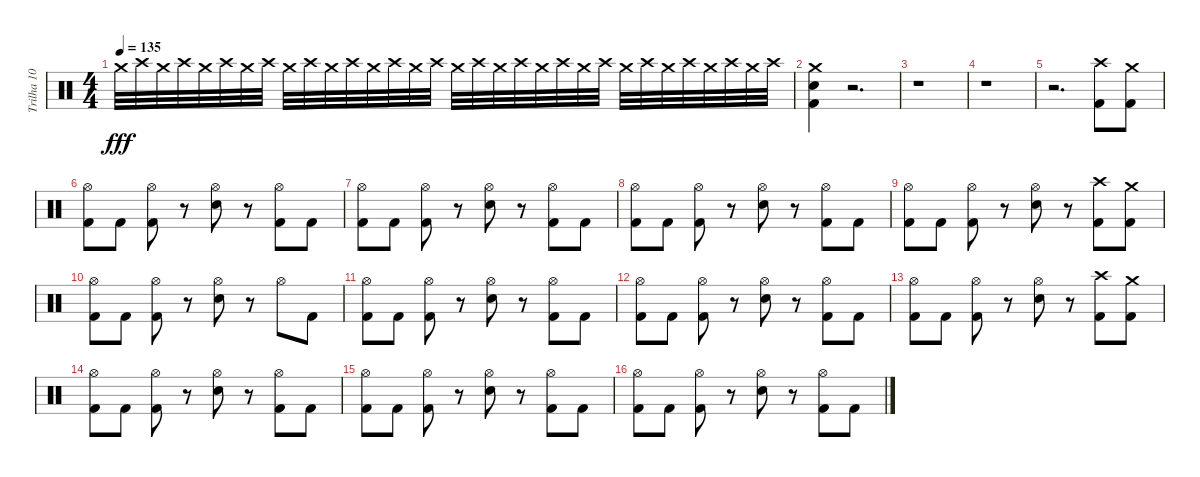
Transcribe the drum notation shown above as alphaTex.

\track ("Trilha 10" "Trilha 10") {instrument percussion}
\staff {score}
\articulation defaults
\ts (4 4)
\tempo 135
\clef neutral
\ks c "Crash medium (hit)".32{dy fff} "Crash high (hit)".32 "Crash medium (hit)".32 "Crash high (hit)".32 "Crash medium (hit)".32 "Crash high (hit)".32 "Crash medium (hit)".32 "Crash high (hit)".32 "Crash medium (hit)".32 "Crash high (hit)".32 "Crash medium (hit)".32 "Crash high (hit)".32 "Crash medium (hit)".32 "Crash high (hit)".32 "Crash medium (hit)".32 "Crash high (hit)".32 "Crash medium (hit)".32 "Crash high (hit)".32 "Crash medium (hit)".32 "Crash high (hit)".32 "Crash medium (hit)".32 "Crash high (hit)".32 "Crash medium (hit)".32 "Crash high (hit)".32 "Crash medium (hit)".32 "Crash high (hit)".32 "Crash medium (hit)".32 "Crash high (hit)".32 "Crash medium (hit)".32 "Crash high (hit)".32 "Crash medium (hit)".32 "Crash high (hit)".32
|
("Electric Snare (hit)" "Crash medium (hit)" "Kick (hit) 2").4 r.2{d} |
r.1 |
r.1 |
r.2{d} ("Kick (hit) 2" "Crash high (hit)").8 ("Kick (hit) 2" "Crash medium (hit)").8 |
("Kick (hit) 2" "Hi-Hat (open)").8 "Kick (hit) 2".8 ("Kick (hit) 2" "Hi-Hat (open)").8 r.8 ("Electric Snare (hit)" "Hi-Hat (open)").8 r.8 ("Kick (hit) 2" "Hi-Hat (open)").8 "Kick (hit) 2".8 |
("Kick (hit) 2" "Hi-Hat (open)").8 "Kick (hit) 2".8 ("Kick (hit) 2" "Hi-Hat (open)").8 r.8 ("Electric Snare (hit)" "Hi-Hat (open)").8 r.8 ("Kick (hit) 2" "Hi-Hat (open)").8 "Kick (hit) 2".8 |
("Kick (hit) 2" "Hi-Hat (open)").8 "Kick (hit) 2".8 ("Kick (hit) 2" "Hi-Hat (open)").8 r.8 ("Electric Snare (hit)" "Hi-Hat (open)").8 r.8 ("Kick (hit) 2" "Hi-Hat (open)").8 "Kick (hit) 2".8 |
("Kick (hit) 2" "Hi-Hat (open)").8 "Kick (hit) 2".8 ("Kick (hit) 2" "Hi-Hat (open)").8 r.8 ("Electric Snare (hit)" "Hi-Hat (open)").8 r.8 ("Kick (hit) 2" "Crash high (hit)").8 ("Kick (hit) 2" "Crash medium (hit)").8 |
("Kick (hit) 2" "Hi-Hat (open)").8 "Kick (hit) 2".8 ("Kick (hit) 2" "Hi-Hat (open)").8 r.8 ("Electric Snare (hit)" "Hi-Hat (open)").8 r.8 "Hi-Hat (open)".8 "Kick (hit) 2".8 |
("Kick (hit) 2" "Hi-Hat (open)").8 "Kick (hit) 2".8 ("Kick (hit) 2" "Hi-Hat (open)").8 r.8 ("Electric Snare (hit)" "Hi-Hat (open)").8 r.8 ("Kick (hit) 2" "Hi-Hat (open)").8 "Kick (hit) 2".8 |
("Kick (hit) 2" "Hi-Hat (open)").8 "Kick (hit) 2".8 ("Kick (hit) 2" "Hi-Hat (open)").8 r.8 ("Electric Snare (hit)" "Hi-Hat (open)").8 r.8 ("Kick (hit) 2" "Hi-Hat (open)").8 "Kick (hit) 2".8 |
("Hi-Hat (open)" "Kick (hit) 2").8 "Kick (hit) 2".8 ("Kick (hit) 2" "Hi-Hat (open)").8 r.8 ("Electric Snare (hit)" "Hi-Hat (open)").8 r.8 ("Kick (hit) 2" "Crash high (hit)").8 ("Kick (hit) 2" "Crash medium (hit)").8 |
("Kick (hit) 2" "Hi-Hat (open)").8 "Kick (hit) 2".8 ("Kick (hit) 2" "Hi-Hat (open)").8 r.8 ("Electric Snare (hit)" "Hi-Hat (open)").8 r.8 ("Kick (hit) 2" "Hi-Hat (open)").8 "Kick (hit) 2".8 |
("Kick (hit) 2" "Hi-Hat (open)").8 "Kick (hit) 2".8 ("Kick (hit) 2" "Hi-Hat (open)").8 r.8 ("Electric Snare (hit)" "Hi-Hat (open)").8 r.8 ("Kick (hit) 2" "Hi-Hat (open)").8 "Kick (hit) 2".8 |
("Kick (hit) 2" "Hi-Hat (open)").8 "Kick (hit) 2".8 ("Kick (hit) 2" "Hi-Hat (open)").8 r.8 ("Electric Snare (hit)" "Hi-Hat (open)").8 r.8 ("Kick (hit) 2" "Hi-Hat (open)").8 "Kick (hit) 2".8
